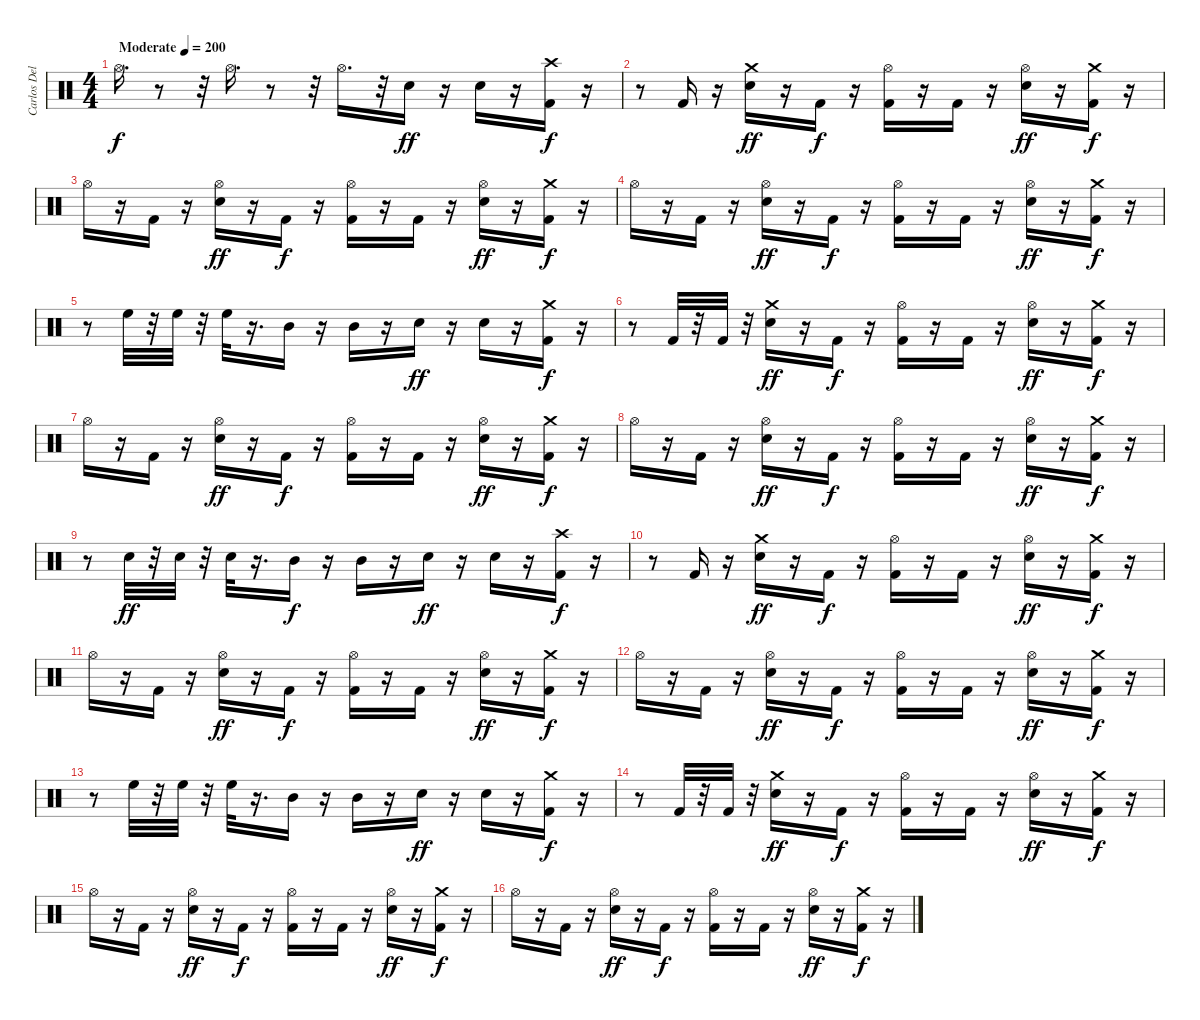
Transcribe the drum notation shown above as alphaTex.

\track ("Carlos Delgado" "Carlos Del") {instrument percussion}
\staff {score}
\articulation defaults
\ts (4 4)
\tempo (200 "Moderate")
\clef neutral
\ks c "Hi-Hat (open)".16{d dy f}
r.8 r.32 "Hi-Hat (open)".16{d} r.8 r.32 "Hi-Hat (open)".16{d} r.32 "Electric Snare (hit)".16{dy ff} r.16 "Electric Snare (hit)".16 r.16 ("Crash high (hit)" "Kick (hit) 2").16{dy f} r.16 |
r.8 "Kick (hit) 2".16 r.16 ("Crash medium (hit)" "Electric Snare (hit)").16{dy ff} r.16 "Kick (hit) 2".16{dy f} r.16 ("Hi-Hat (open)" "Kick (hit) 2").16 r.16 "Kick (hit) 2".16 r.16 ("Electric Snare (hit)" "Hi-Hat (open)").16{dy ff} r.16 ("Kick (hit) 2" "Crash medium (hit)").16{dy f} r.16 |
"Hi-Hat (open)".16 r.16 "Kick (hit) 2".16 r.16 ("Electric Snare (hit)" "Hi-Hat (open)").16{dy ff} r.16 "Kick (hit) 2".16{dy f} r.16 ("Hi-Hat (open)" "Kick (hit) 2").16 r.16 "Kick (hit) 2".16 r.16 ("Hi-Hat (open)" "Electric Snare (hit)").16{dy ff} r.16 ("Crash medium (hit)" "Kick (hit) 2").16{dy f} r.16 |
"Hi-Hat (open)".16 r.16 "Kick (hit) 2".16 r.16 ("Hi-Hat (open)" "Electric Snare (hit)").16{dy ff} r.16 "Kick (hit) 2".16{dy f} r.16 ("Hi-Hat (open)" "Kick (hit) 2").16 r.16 "Kick (hit) 2".16 r.16 ("Electric Snare (hit)" "Hi-Hat (open)").16{dy ff} r.16 ("Kick (hit) 2" "Crash medium (hit)").16{dy f} r.16 |
r.8 "High Floor Tom (hit)".32 r.32 "High Floor Tom (hit)".32 r.32 "High Floor Tom (hit)".32 r.16{d} "Mid Tom (hit)".16 r.16 "Mid Tom (hit)".16 r.16 "Electric Snare (hit)".16{dy ff} r.16 "Electric Snare (hit)".16 r.16 ("Crash medium (hit)" "Kick (hit) 2").16{dy f} r.16 |
r.8 "Kick (hit) 2".32 r.32 "Kick (hit) 2".32 r.32 ("Crash medium (hit)" "Electric Snare (hit)").16{dy ff} r.16 "Kick (hit) 2".16{dy f} r.16 ("Hi-Hat (open)" "Kick (hit) 2").16 r.16 "Kick (hit) 2".16 r.16 ("Electric Snare (hit)" "Hi-Hat (open)").16{dy ff} r.16 ("Crash medium (hit)" "Kick (hit) 2").16{dy f} r.16 |
"Hi-Hat (open)".16 r.16 "Kick (hit) 2".16 r.16 ("Hi-Hat (open)" "Electric Snare (hit)").16{dy ff} r.16 "Kick (hit) 2".16{dy f} r.16 ("Kick (hit) 2" "Hi-Hat (open)").16 r.16 "Kick (hit) 2".16 r.16 ("Electric Snare (hit)" "Hi-Hat (open)").16{dy ff} r.16 ("Kick (hit) 2" "Crash medium (hit)").16{dy f} r.16 |
"Hi-Hat (open)".16 r.16 "Kick (hit) 2".16 r.16 ("Hi-Hat (open)" "Electric Snare (hit)").16{dy ff} r.16 "Kick (hit) 2".16{dy f} r.16 ("Kick (hit) 2" "Hi-Hat (open)").16 r.16 "Kick (hit) 2".16 r.16 ("Electric Snare (hit)" "Hi-Hat (open)").16{dy ff} r.16 ("Kick (hit) 2" "Crash medium (hit)").16{dy f} r.16 |
r.8 "Electric Snare (hit)".32{dy ff} r.32 "Electric Snare (hit)".32 r.32 "Electric Snare (hit)".32 r.16{d} "Mid Tom (hit)".16{dy f} r.16 "Mid Tom (hit)".16 r.16 "Electric Snare (hit)".16{dy ff} r.16 "Electric Snare (hit)".16 r.16 ("Kick (hit) 2" "Crash high (hit)").16{dy f} r.16 |
r.8 "Kick (hit) 2".16 r.16 ("Crash medium (hit)" "Electric Snare (hit)").16{dy ff} r.16 "Kick (hit) 2".16{dy f} r.16 ("Hi-Hat (open)" "Kick (hit) 2").16 r.16 "Kick (hit) 2".16 r.16 ("Hi-Hat (open)" "Electric Snare (hit)").16{dy ff} r.16 ("Kick (hit) 2" "Crash medium (hit)").16{dy f} r.16 |
"Hi-Hat (open)".16 r.16 "Kick (hit) 2".16 r.16 ("Hi-Hat (open)" "Electric Snare (hit)").16{dy ff} r.16 "Kick (hit) 2".16{dy f} r.16 ("Kick (hit) 2" "Hi-Hat (open)").16 r.16 "Kick (hit) 2".16 r.16 ("Hi-Hat (open)" "Electric Snare (hit)").16{dy ff} r.16 ("Kick (hit) 2" "Crash medium (hit)").16{dy f} r.16 |
"Hi-Hat (open)".16 r.16 "Kick (hit) 2".16 r.16 ("Hi-Hat (open)" "Electric Snare (hit)").16{dy ff} r.16 "Kick (hit) 2".16{dy f} r.16 ("Hi-Hat (open)" "Kick (hit) 2").16 r.16 "Kick (hit) 2".16 r.16 ("Hi-Hat (open)" "Electric Snare (hit)").16{dy ff} r.16 ("Crash medium (hit)" "Kick (hit) 2").16{dy f} r.16 |
r.8 "High Floor Tom (hit)".32 r.32 "High Floor Tom (hit)".32 r.32 "High Floor Tom (hit)".32 r.16{d} "Mid Tom (hit)".16 r.16 "Mid Tom (hit)".16 r.16 "Electric Snare (hit)".16{dy ff} r.16 "Electric Snare (hit)".16 r.16 ("Crash medium (hit)" "Kick (hit) 2").16{dy f} r.16 |
r.8 "Kick (hit) 2".32 r.32 "Kick (hit) 2".32 r.32 ("Crash medium (hit)" "Electric Snare (hit)").16{dy ff} r.16 "Kick (hit) 2".16{dy f} r.16 ("Hi-Hat (open)" "Kick (hit) 2").16 r.16 "Kick (hit) 2".16 r.16 ("Hi-Hat (open)" "Electric Snare (hit)").16{dy ff} r.16 ("Kick (hit) 2" "Crash medium (hit)").16{dy f} r.16 |
"Hi-Hat (open)".16 r.16 "Kick (hit) 2".16 r.16 ("Electric Snare (hit)" "Hi-Hat (open)").16{dy ff} r.16 "Kick (hit) 2".16{dy f} r.16 ("Kick (hit) 2" "Hi-Hat (open)").16 r.16 "Kick (hit) 2".16 r.16 ("Electric Snare (hit)" "Hi-Hat (open)").16{dy ff} r.16 ("Crash medium (hit)" "Kick (hit) 2").16{dy f} r.16 |
"Hi-Hat (open)".16 r.16 "Kick (hit) 2".16 r.16 ("Electric Snare (hit)" "Hi-Hat (open)").16{dy ff} r.16 "Kick (hit) 2".16{dy f} r.16 ("Hi-Hat (open)" "Kick (hit) 2").16 r.16 "Kick (hit) 2".16 r.16 ("Electric Snare (hit)" "Hi-Hat (open)").16{dy ff} r.16 ("Crash medium (hit)" "Kick (hit) 2").16{dy f} r.16
